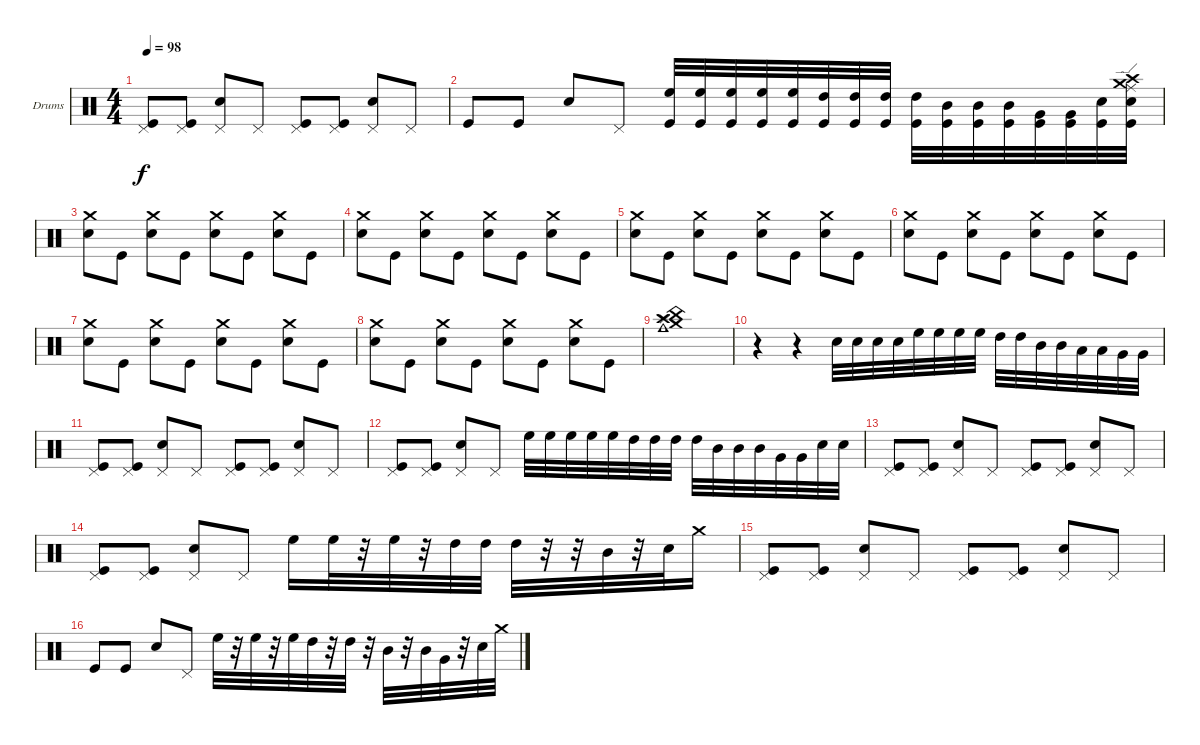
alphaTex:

\bracketExtendMode groupsimilarinstruments
\firstSystemTrackNameOrientation horizontal
\otherSystemsTrackNameOrientation horizontal
\track ("Drumkit" "Drums") {instrument percussion}
\staff {score}
\articulation defaults
\ts (4 4)
\tempo 98
\clef neutral
\ks c
("Pedal Hi-Hat (hit)" "Kick (hit)").8{dy f} ("Pedal Hi-Hat (hit)" "Kick (hit)").8 ("Pedal Hi-Hat (hit)" "Snare (hit) 2").8 "Pedal Hi-Hat (hit)".8 ("Pedal Hi-Hat (hit)" "Kick (hit)").8 ("Pedal Hi-Hat (hit)" "Kick (hit)").8 ("Pedal Hi-Hat (hit)" "Snare (hit) 2").8 "Pedal Hi-Hat (hit)".8 |
"Kick (hit)".8 "Kick (hit)".8 "Snare (hit) 2".8 "Pedal Hi-Hat (hit)".8 ("Kick (hit)" "High Floor Tom (hit)").32 ("Kick (hit)" "High Floor Tom (hit)").32 ("Kick (hit)" "High Floor Tom (hit)").32 ("Kick (hit)" "High Floor Tom (hit)").32 ("Kick (hit)" "High Floor Tom (hit)").32 ("Kick (hit)" "High Tom (hit)").32 ("Kick (hit)" "High Tom (hit)").32 ("Kick (hit)" "High Tom (hit)").32 ("Kick (hit)" "High Tom (hit)").32 ("Kick (hit)" "Mid Tom (hit)").32 ("Kick (hit)" "Mid Tom (hit)").32 ("Kick (hit)" "Mid Tom (hit)").32 ("Kick (hit)" "Very Low Tom (hit)").32 ("Kick (hit)" "Very Low Tom (hit)").32 ("Kick (hit)" "Snare (hit) 2").32 ("Kick (hit)" "Snare (hit) 2" "Crash medium (hit)" "Crash high (hit)" "Ride (edge)").32 |
("Crash medium (hit)" "Snare (hit) 2").8 "Kick (hit)".8 ("Crash medium (hit)" "Snare (hit) 2").8 "Kick (hit)".8 ("Crash medium (hit)" "Snare (hit) 2").8 "Kick (hit)".8 ("Crash medium (hit)" "Snare (hit) 2").8 "Kick (hit)".8 |
("Crash medium (hit)" "Snare (hit) 2").8 "Kick (hit)".8 ("Crash medium (hit)" "Snare (hit) 2").8 "Kick (hit)".8 ("Crash medium (hit)" "Snare (hit) 2").8 "Kick (hit)".8 ("Crash medium (hit)" "Snare (hit) 2").8 "Kick (hit)".8 |
("Crash medium (hit)" "Snare (hit) 2").8 "Kick (hit)".8 ("Crash medium (hit)" "Snare (hit) 2").8 "Kick (hit)".8 ("Crash medium (hit)" "Snare (hit) 2").8 "Kick (hit)".8 ("Crash medium (hit)" "Snare (hit) 2").8 "Kick (hit)".8 |
("Crash medium (hit)" "Snare (hit) 2").8 "Kick (hit)".8 ("Crash medium (hit)" "Snare (hit) 2").8 "Kick (hit)".8 ("Crash medium (hit)" "Snare (hit) 2").8 "Kick (hit)".8 ("Crash medium (hit)" "Snare (hit) 2").8 "Kick (hit)".8 |
("Crash medium (hit)" "Snare (hit) 2").8 "Kick (hit)".8 ("Crash medium (hit)" "Snare (hit) 2").8 "Kick (hit)".8 ("Crash medium (hit)" "Snare (hit) 2").8 "Kick (hit)".8 ("Crash medium (hit)" "Snare (hit) 2").8 "Kick (hit)".8 |
("Crash medium (hit)" "Snare (hit) 2").8 "Kick (hit)".8 ("Crash medium (hit)" "Snare (hit) 2").8 "Kick (hit)".8 ("Crash medium (hit)" "Snare (hit) 2").8 "Kick (hit)".8 ("Crash medium (hit)" "Snare (hit) 2").8 "Kick (hit)".8 |
("Cowbell medium (hit)" "Crash medium (hit)" "Crash high (hit)" "China (hit)" "Splash (hit)").1 |
r.4 r.4 "Snare (hit) 2".32 "Snare (hit) 2".32 "Snare (hit) 2".32 "Snare (hit) 2".32 "High Floor Tom (hit)".32 "High Floor Tom (hit)".32 "High Floor Tom (hit)".32 "High Floor Tom (hit)".32 "High Tom (hit)".32 "High Tom (hit)".32 "Mid Tom (hit)".32 "Mid Tom (hit)".32 "Low Tom (hit)".32 "Low Tom (hit)".32 "Very Low Tom (hit)".32 "Very Low Tom (hit)".32 |
("Pedal Hi-Hat (hit)" "Kick (hit)").8 ("Pedal Hi-Hat (hit)" "Kick (hit)").8 ("Pedal Hi-Hat (hit)" "Snare (hit) 2").8 "Pedal Hi-Hat (hit)".8 ("Pedal Hi-Hat (hit)" "Kick (hit)").8 ("Pedal Hi-Hat (hit)" "Kick (hit)").8 ("Pedal Hi-Hat (hit)" "Snare (hit) 2").8 "Pedal Hi-Hat (hit)".8 |
("Pedal Hi-Hat (hit)" "Kick (hit)").8 ("Pedal Hi-Hat (hit)" "Kick (hit)").8 ("Pedal Hi-Hat (hit)" "Snare (hit) 2").8 "Pedal Hi-Hat (hit)".8 "High Floor Tom (hit)".32 "High Floor Tom (hit)".32 "High Floor Tom (hit)".32 "High Floor Tom (hit)".32 "High Floor Tom (hit)".32 "High Tom (hit)".32 "High Tom (hit)".32 "High Tom (hit)".32 "High Tom (hit)".32 "Mid Tom (hit)".32 "Mid Tom (hit)".32 "Mid Tom (hit)".32 "Very Low Tom (hit)".32 "Very Low Tom (hit)".32 "Snare (hit) 2".32 "Snare (hit) 2".32 |
("Pedal Hi-Hat (hit)" "Kick (hit)").8 ("Pedal Hi-Hat (hit)" "Kick (hit)").8 ("Pedal Hi-Hat (hit)" "Snare (hit) 2").8 "Pedal Hi-Hat (hit)".8 ("Pedal Hi-Hat (hit)" "Kick (hit)").8 ("Pedal Hi-Hat (hit)" "Kick (hit)").8 ("Pedal Hi-Hat (hit)" "Snare (hit) 2").8 "Pedal Hi-Hat (hit)".8 |
("Pedal Hi-Hat (hit)" "Kick (hit)").8 ("Pedal Hi-Hat (hit)" "Kick (hit)").8 ("Pedal Hi-Hat (hit)" "Snare (hit) 2").8 "Pedal Hi-Hat (hit)".8 "High Floor Tom (hit)".16 "High Floor Tom (hit)".32 r.32 "High Floor Tom (hit)".32 r.32 "High Tom (hit)".32 "High Tom (hit)".32 "High Tom (hit)".32 r.32 r.32 "Mid Tom (hit)".32 r.32 "Snare (hit) 2".32 "Crash medium (hit)".16 |
("Pedal Hi-Hat (hit)" "Kick (hit)").8 ("Pedal Hi-Hat (hit)" "Kick (hit)").8 ("Pedal Hi-Hat (hit)" "Snare (hit) 2").8 "Pedal Hi-Hat (hit)".8 ("Pedal Hi-Hat (hit)" "Kick (hit)").8 ("Pedal Hi-Hat (hit)" "Kick (hit)").8 ("Pedal Hi-Hat (hit)" "Snare (hit) 2").8 "Pedal Hi-Hat (hit)".8 |
"Kick (hit)".8 "Kick (hit)".8 "Snare (hit) 2".8 "Pedal Hi-Hat (hit)".8 "High Floor Tom (hit)".32 r.32 "High Floor Tom (hit)".32 r.32 "High Floor Tom (hit)".32 "High Tom (hit)".32 r.32 "High Tom (hit)".32 r.32 "Mid Tom (hit)".32 r.32 "Mid Tom (hit)".32 "Very Low Tom (hit)".32 r.32 "Snare (hit) 2".32 "Crash medium (hit)".32
